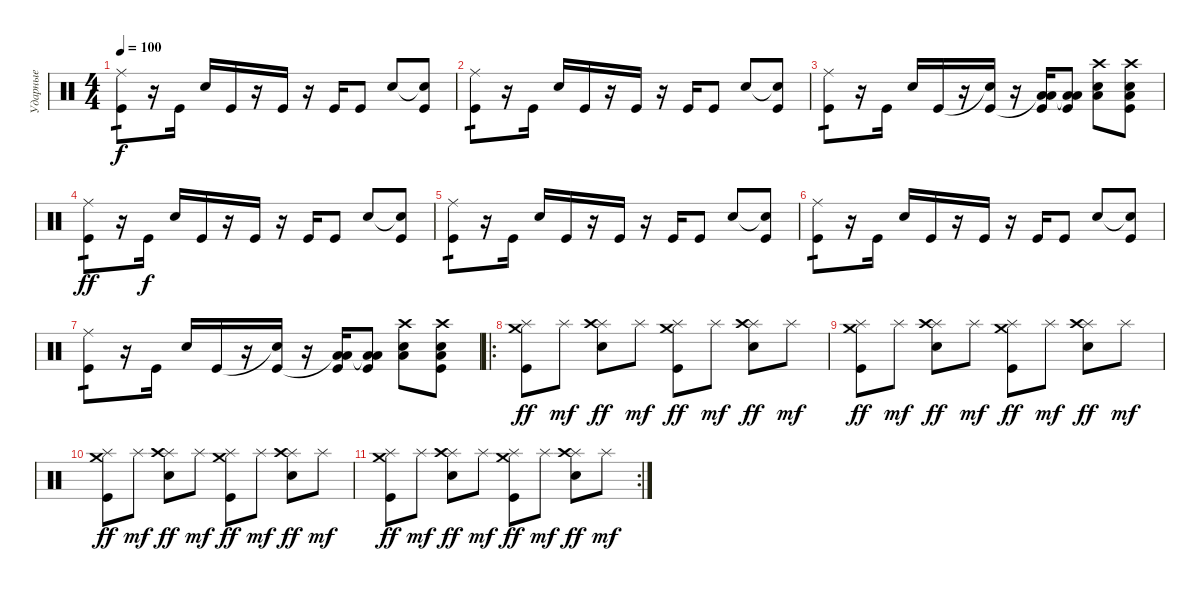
\track ("Ударные" "Ударные") {instrument percussion}
\staff {score}
\articulation defaults
\ts (4 4)
\tempo 100
\clef neutral
\ks c
("Ride (middle)" "Kick (hit)").8{tp 1 dy f} r.16 "Kick (hit)".16 "Electric Snare (hit)".16 "Kick (hit)".16 r.16 "Kick (hit)".16 r.16 "Kick (hit)".16 "Kick (hit)".8 "Electric Snare (hit)".8 ("Snare (hit)"{t} "Kick (hit)").8 |
("Ride (middle)" "Kick (hit)").8{tp 1} r.16 "Kick (hit)".16 "Electric Snare (hit)".16 "Kick (hit)".16 r.16 "Kick (hit)".16 r.16 "Kick (hit)".16 "Kick (hit)".8 "Electric Snare (hit)".8 ("Snare (hit)"{t} "Kick (hit)").8 |
("Ride (middle)" "Kick (hit)").8{tp 1} r.16 "Kick (hit)".16 "Electric Snare (hit)".16 "Kick (hit)".16 r.16 ("Snare (hit)"{t} "Kick (hit)").16 r.16 ("Low Tom (hit)" "Low Tom (hit)"{t} "Kick (hit)").16 ("Low Floor Tom (hit)" "Low Floor Tom (hit)"{t} "Kick (hit)").8 ("Crash high (hit)" "Low Floor Tom (hit)" "Electric Snare (hit)").8 ("Crash high (hit)" "Low Floor Tom (hit)" "Electric Snare (hit)" "Kick (hit)").8 |
("Ride (middle)" "Kick (hit)").8{tp 1 dy ff} r.16 "Kick (hit)".16{dy f} "Electric Snare (hit)".16 "Kick (hit)".16 r.16 "Kick (hit)".16 r.16 "Kick (hit)".16 "Kick (hit)".8 "Electric Snare (hit)".8 ("Snare (hit)"{t} "Kick (hit)").8 |
("Ride (middle)" "Kick (hit)").8{tp 1} r.16 "Kick (hit)".16 "Electric Snare (hit)".16 "Kick (hit)".16 r.16 "Kick (hit)".16 r.16 "Kick (hit)".16 "Kick (hit)".8 "Electric Snare (hit)".8 ("Snare (hit)"{t} "Kick (hit)").8 |
("Ride (middle)" "Kick (hit)").8{tp 1} r.16 "Kick (hit)".16 "Electric Snare (hit)".16 "Kick (hit)".16 r.16 "Kick (hit)".16 r.16 "Kick (hit)".16 "Kick (hit)".8 "Electric Snare (hit)".8 ("Snare (hit)"{t} "Kick (hit)").8 |
("Ride (middle)" "Kick (hit)").8{tp 1} r.16 "Kick (hit)".16 "Electric Snare (hit)".16 "Kick (hit)".16 r.16 ("Snare (hit)"{t} "Kick (hit)").16 r.16 ("Low Tom (hit)" "Low Tom (hit)"{t} "Kick (hit)").16 ("Low Floor Tom (hit)" "Low Floor Tom (hit)"{t} "Kick (hit)").8 ("Crash high (hit)" "Low Floor Tom (hit)" "Electric Snare (hit)").8 ("Crash high (hit)" "Low Floor Tom (hit)" "Electric Snare (hit)" "Kick (hit)").8 |
\ro
("Splash (hit)" "Crash medium (hit)" "Kick (hit)").8{dy ff} "Splash (hit)".8{dy mf} ("Splash (hit)" "Crash high (hit)" "Electric Snare (hit)").8{dy ff} "Splash (hit)".8{dy mf} ("Splash (hit)" "Crash medium (hit)" "Kick (hit)").8{dy ff} "Splash (hit)".8{dy mf} ("Splash (hit)" "Crash high (hit)" "Electric Snare (hit)").8{dy ff} "Splash (hit)".8{dy mf} |
("Splash (hit)" "Crash medium (hit)" "Kick (hit)").8{dy ff} "Splash (hit)".8{dy mf} ("Splash (hit)" "Crash high (hit)" "Electric Snare (hit)").8{dy ff} "Splash (hit)".8{dy mf} ("Splash (hit)" "Crash medium (hit)" "Kick (hit)").8{dy ff} "Splash (hit)".8{dy mf} ("Splash (hit)" "Crash high (hit)" "Electric Snare (hit)").8{dy ff} "Splash (hit)".8{dy mf} |
("Splash (hit)" "Crash medium (hit)" "Kick (hit)").8{dy ff} "Splash (hit)".8{dy mf} ("Splash (hit)" "Crash high (hit)" "Electric Snare (hit)").8{dy ff} "Splash (hit)".8{dy mf} ("Splash (hit)" "Crash medium (hit)" "Kick (hit)").8{dy ff} "Splash (hit)".8{dy mf} ("Splash (hit)" "Crash high (hit)" "Electric Snare (hit)").8{dy ff} "Splash (hit)".8{dy mf} |
\rc 2
("Splash (hit)" "Crash medium (hit)" "Kick (hit)").8{dy ff} "Splash (hit)".8{dy mf} ("Splash (hit)" "Crash high (hit)" "Electric Snare (hit)").8{dy ff} "Splash (hit)".8{dy mf} ("Splash (hit)" "Crash medium (hit)" "Kick (hit)").8{dy ff} "Splash (hit)".8{dy mf} ("Splash (hit)" "Crash high (hit)" "Electric Snare (hit)").8{dy ff} "Splash (hit)".8{dy mf}
